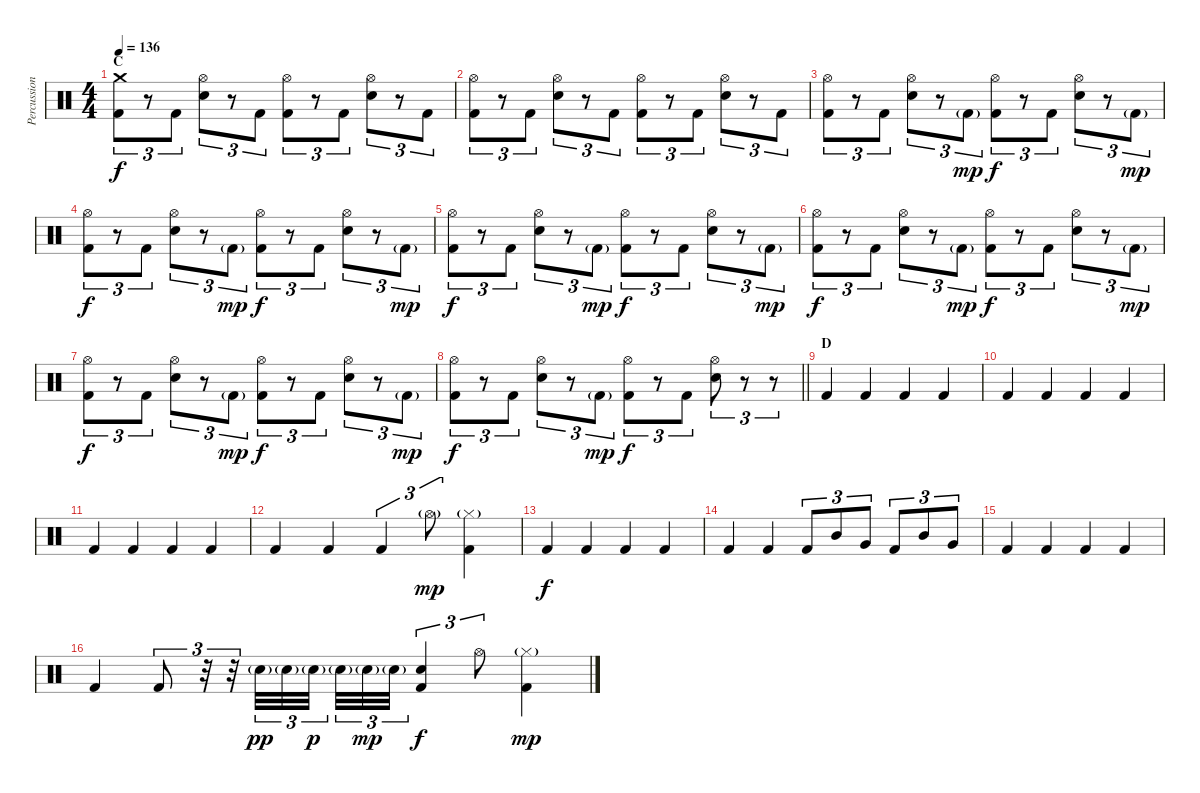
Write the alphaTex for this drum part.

\track ("Percussion" "Percussion") {instrument percussion}
\staff {score}
\articulation defaults
\ts (4 4)
\section ("" "C")
\tempo 136
\clef neutral
\ks c
("Crash medium (hit)" "Kick (hit) 2").8{tu (3 2) dy f} r.8{tu (3 2)} "Kick (hit) 2".8{tu (3 2)} ("Hi-Hat (open)" "Electric Snare (hit)").8{tu (3 2)} r.8{tu (3 2)} "Kick (hit) 2".8{tu (3 2)} ("Hi-Hat (open)" "Kick (hit) 2").8{tu (3 2)} r.8{tu (3 2)} "Kick (hit) 2".8{tu (3 2)} ("Hi-Hat (open)" "Electric Snare (hit)").8{tu (3 2)} r.8{tu (3 2)} "Kick (hit) 2".8{tu (3 2)} |
("Hi-Hat (open)" "Kick (hit) 2").8{tu (3 2)} r.8{tu (3 2)} "Kick (hit) 2".8{tu (3 2)} ("Hi-Hat (open)" "Electric Snare (hit)").8{tu (3 2)} r.8{tu (3 2)} "Kick (hit) 2".8{tu (3 2)} ("Hi-Hat (open)" "Kick (hit) 2").8{tu (3 2)} r.8{tu (3 2)} "Kick (hit) 2".8{tu (3 2)} ("Hi-Hat (open)" "Electric Snare (hit)").8{tu (3 2)} r.8{tu (3 2)} "Kick (hit) 2".8{tu (3 2)} |
("Hi-Hat (open)" "Kick (hit) 2").8{tu (3 2)} r.8{tu (3 2)} "Kick (hit) 2".8{tu (3 2)} ("Hi-Hat (open)" "Electric Snare (hit)").8{tu (3 2)} r.8{tu (3 2)} "Kick (hit) 2"{g}.8{tu (3 2) dy mp} ("Hi-Hat (open)" "Kick (hit) 2").8{tu (3 2) dy f} r.8{tu (3 2)} "Kick (hit) 2".8{tu (3 2)} ("Hi-Hat (open)" "Electric Snare (hit)").8{tu (3 2)} r.8{tu (3 2)} "Kick (hit) 2"{g}.8{tu (3 2) dy mp} |
("Hi-Hat (open)" "Kick (hit) 2").8{tu (3 2) dy f} r.8{tu (3 2)} "Kick (hit) 2".8{tu (3 2)} ("Hi-Hat (open)" "Electric Snare (hit)").8{tu (3 2)} r.8{tu (3 2)} "Kick (hit) 2"{g}.8{tu (3 2) dy mp} ("Hi-Hat (open)" "Kick (hit) 2").8{tu (3 2) dy f} r.8{tu (3 2)} "Kick (hit) 2".8{tu (3 2)} ("Hi-Hat (open)" "Electric Snare (hit)").8{tu (3 2)} r.8{tu (3 2)} "Kick (hit) 2"{g}.8{tu (3 2) dy mp} |
("Hi-Hat (open)" "Kick (hit) 2").8{tu (3 2) dy f} r.8{tu (3 2)} "Kick (hit) 2".8{tu (3 2)} ("Hi-Hat (open)" "Electric Snare (hit)").8{tu (3 2)} r.8{tu (3 2)} "Kick (hit) 2"{g}.8{tu (3 2) dy mp} ("Hi-Hat (open)" "Kick (hit) 2").8{tu (3 2) dy f} r.8{tu (3 2)} "Kick (hit) 2".8{tu (3 2)} ("Hi-Hat (open)" "Electric Snare (hit)").8{tu (3 2)} r.8{tu (3 2)} "Kick (hit) 2"{g}.8{tu (3 2) dy mp} |
("Hi-Hat (open)" "Kick (hit) 2").8{tu (3 2) dy f} r.8{tu (3 2)} "Kick (hit) 2".8{tu (3 2)} ("Hi-Hat (open)" "Electric Snare (hit)").8{tu (3 2)} r.8{tu (3 2)} "Kick (hit) 2"{g}.8{tu (3 2) dy mp} ("Hi-Hat (open)" "Kick (hit) 2").8{tu (3 2) dy f} r.8{tu (3 2)} "Kick (hit) 2".8{tu (3 2)} ("Hi-Hat (open)" "Electric Snare (hit)").8{tu (3 2)} r.8{tu (3 2)} "Kick (hit) 2"{g}.8{tu (3 2) dy mp} |
("Hi-Hat (open)" "Kick (hit) 2").8{tu (3 2) dy f} r.8{tu (3 2)} "Kick (hit) 2".8{tu (3 2)} ("Hi-Hat (open)" "Electric Snare (hit)").8{tu (3 2)} r.8{tu (3 2)} "Kick (hit) 2"{g}.8{tu (3 2) dy mp} ("Hi-Hat (open)" "Kick (hit) 2").8{tu (3 2) dy f} r.8{tu (3 2)} "Kick (hit) 2".8{tu (3 2)} ("Hi-Hat (open)" "Electric Snare (hit)").8{tu (3 2)} r.8{tu (3 2)} "Kick (hit) 2"{g}.8{tu (3 2) dy mp} |
\barLineRight lightlight
("Hi-Hat (open)" "Kick (hit) 2").8{tu (3 2) dy f} r.8{tu (3 2)} "Kick (hit) 2".8{tu (3 2)} ("Hi-Hat (open)" "Electric Snare (hit)").8{tu (3 2)} r.8{tu (3 2)} "Kick (hit) 2"{g}.8{tu (3 2) dy mp} ("Hi-Hat (open)" "Kick (hit) 2").8{tu (3 2) dy f} r.8{tu (3 2)} "Kick (hit) 2".8{tu (3 2)} ("Hi-Hat (open)" "Electric Snare (hit)").8{tu (3 2)} r.8{tu (3 2)} r.8{tu (3 2)} |
\section ("" "D")
"Kick (hit) 2".4 "Kick (hit) 2".4 "Kick (hit) 2".4 "Kick (hit) 2".4 |
"Kick (hit) 2".4 "Kick (hit) 2".4 "Kick (hit) 2".4 "Kick (hit) 2".4 |
"Kick (hit) 2".4 "Kick (hit) 2".4 "Kick (hit) 2".4 "Kick (hit) 2".4 |
"Kick (hit) 2".4 "Kick (hit) 2".4 "Kick (hit) 2".4{tu (3 2)} "Hi-Hat (open)"{g}.8{tu (3 2) dy mp} ("Hi-Hat (closed)"{g} "Kick (hit) 2").4 |
"Kick (hit) 2".4{dy f} "Kick (hit) 2".4 "Kick (hit) 2".4 "Kick (hit) 2".4 |
"Kick (hit) 2".4 "Kick (hit) 2".4 "Kick (hit) 2".8{tu (3 2)} "Mid Tom (hit)".8{tu (3 2)} "Very Low Tom (hit)".8{tu (3 2)} "Kick (hit) 2".8{tu (3 2)} "Mid Tom (hit)".8{tu (3 2)} "Very Low Tom (hit)".8{tu (3 2)} |
"Kick (hit) 2".4 "Kick (hit) 2".4 "Kick (hit) 2".4 "Kick (hit) 2".4 |
"Kick (hit) 2".4 "Kick (hit) 2".8{tu (3 2)} r.32{tu (3 2)} r.32{tu (3 2)} "Electric Snare (hit)"{g}.32{tu (3 2) dy pp} "Electric Snare (hit)"{g}.32{tu (3 2)} "Electric Snare (hit)"{g}.32{tu (3 2) dy p beam splitsecondary} "Electric Snare (hit)"{g}.32{tu (3 2)} "Electric Snare (hit)"{g}.32{tu (3 2) dy mp} "Electric Snare (hit)"{g}.32{tu (3 2)} ("Electric Snare (hit)" "Kick (hit) 2").4{tu (3 2) dy f} "Hi-Hat (open)".8{tu (3 2)} ("Hi-Hat (closed)"{g} "Kick (hit) 2").4{dy mp}
